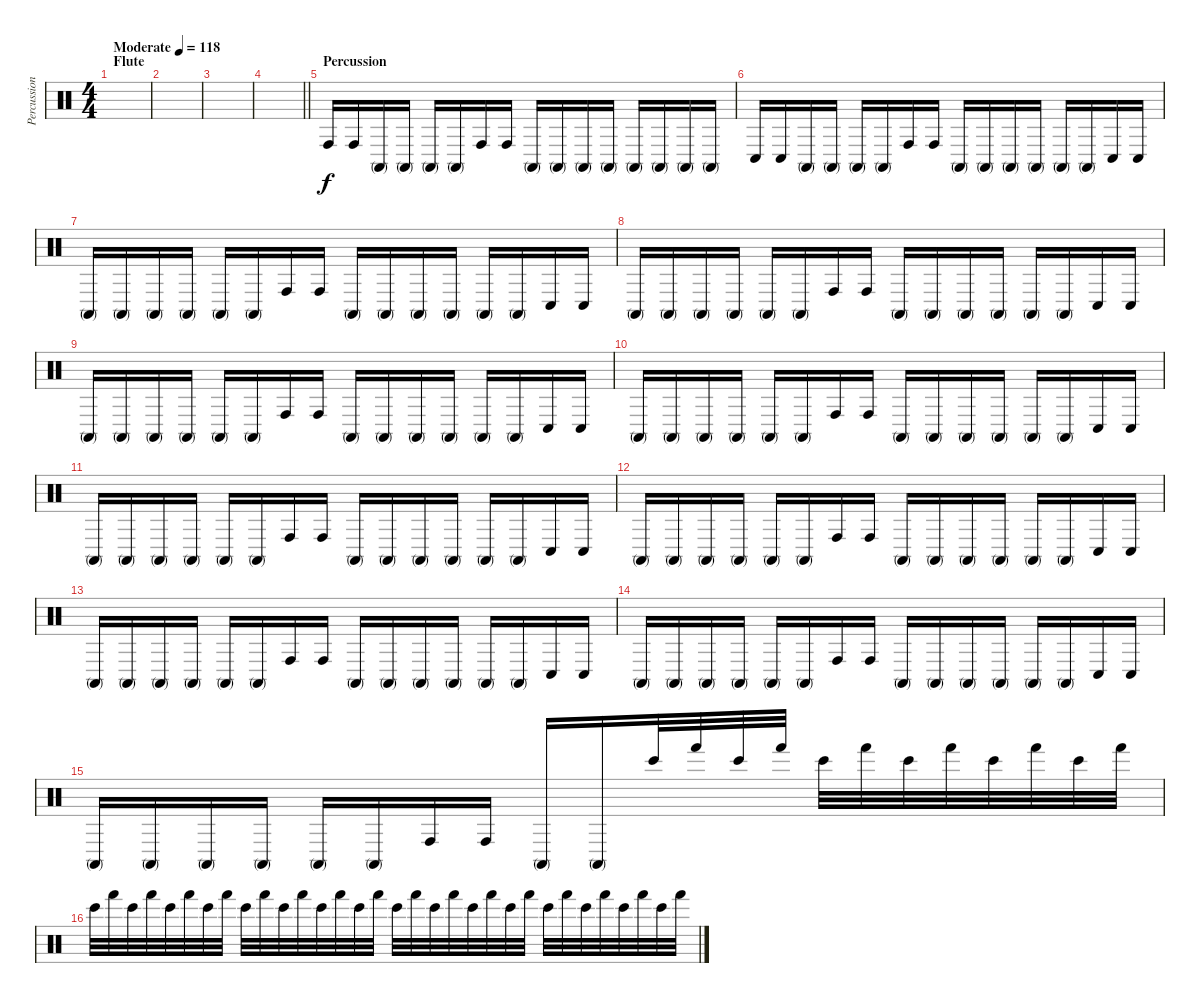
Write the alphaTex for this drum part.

\track ("Percussion (MIDI!!!!!)" "Percussion") {instrument percussion}
\staff {score}
\articulation defaults
\ts (4 4)
\section ("" "Flute")
\tempo (118 "Moderate")
\clef neutral
\ks c
|
|
|
\barLineRight lightlight
|
\section ("" "Percussion")
"Conga high (hit)".16{volume 10} "Conga high (hit)".16 "Conga high (mute)".16 "Conga high (mute)".16 "Conga high (mute)".16 "Conga high (mute)".16 "Conga high (hit)".16 "Conga high (hit)".16 "Conga high (mute)".16 "Conga high (mute)".16 "Conga high (mute)".16 "Conga high (mute)".16 "Conga high (mute)".16 "Conga high (mute)".16 "Conga high (mute)".16 "Conga high (mute)".16 |
"Conga low (hit)".16 "Conga low (hit)".16 "Conga high (mute)".16 "Conga high (mute)".16 "Conga high (mute)".16 "Conga high (mute)".16 "Conga high (hit)".16 "Conga high (hit)".16 "Conga high (mute)".16 "Conga high (mute)".16 "Conga high (mute)".16 "Conga high (mute)".16 "Conga high (mute)".16 "Conga high (mute)".16 "Conga low (hit)".16 "Conga low (hit)".16 |
"Conga high (mute)".16 "Conga high (mute)".16 "Conga high (mute)".16 "Conga high (mute)".16 "Conga high (mute)".16 "Conga high (mute)".16 "Conga high (hit)".16 "Conga high (hit)".16 "Conga high (mute)".16 "Conga high (mute)".16 "Conga high (mute)".16 "Conga high (mute)".16 "Conga high (mute)".16 "Conga high (mute)".16 "Conga low (hit)".16 "Conga low (hit)".16 |
"Conga high (mute)".16 "Conga high (mute)".16 "Conga high (mute)".16 "Conga high (mute)".16 "Conga high (mute)".16 "Conga high (mute)".16 "Conga high (hit)".16 "Conga high (hit)".16 "Conga high (mute)".16 "Conga high (mute)".16 "Conga high (mute)".16 "Conga high (mute)".16 "Conga high (mute)".16 "Conga high (mute)".16 "Conga low (hit)".16 "Conga low (hit)".16 |
"Conga high (mute)".16 "Conga high (mute)".16 "Conga high (mute)".16 "Conga high (mute)".16 "Conga high (mute)".16 "Conga high (mute)".16 "Conga high (hit)".16 "Conga high (hit)".16 "Conga high (mute)".16 "Conga high (mute)".16 "Conga high (mute)".16 "Conga high (mute)".16 "Conga high (mute)".16 "Conga high (mute)".16 "Conga low (hit)".16 "Conga low (hit)".16 |
"Conga high (mute)".16 "Conga high (mute)".16 "Conga high (mute)".16 "Conga high (mute)".16 "Conga high (mute)".16 "Conga high (mute)".16 "Conga high (hit)".16 "Conga high (hit)".16 "Conga high (mute)".16 "Conga high (mute)".16 "Conga high (mute)".16 "Conga high (mute)".16 "Conga high (mute)".16 "Conga high (mute)".16 "Conga low (hit)".16 "Conga low (hit)".16 |
"Conga high (mute)".16 "Conga high (mute)".16 "Conga high (mute)".16 "Conga high (mute)".16 "Conga high (mute)".16 "Conga high (mute)".16 "Conga high (hit)".16 "Conga high (hit)".16 "Conga high (mute)".16 "Conga high (mute)".16 "Conga high (mute)".16 "Conga high (mute)".16 "Conga high (mute)".16 "Conga high (mute)".16 "Conga low (hit)".16 "Conga low (hit)".16 |
"Conga high (mute)".16 "Conga high (mute)".16 "Conga high (mute)".16 "Conga high (mute)".16 "Conga high (mute)".16 "Conga high (mute)".16 "Conga high (hit)".16 "Conga high (hit)".16 "Conga high (mute)".16 "Conga high (mute)".16 "Conga high (mute)".16 "Conga high (mute)".16 "Conga high (mute)".16 "Conga high (mute)".16 "Conga low (hit)".16 "Conga low (hit)".16 |
"Conga high (mute)".16 "Conga high (mute)".16 "Conga high (mute)".16 "Conga high (mute)".16 "Conga high (mute)".16 "Conga high (mute)".16 "Conga high (hit)".16 "Conga high (hit)".16 "Conga high (mute)".16 "Conga high (mute)".16 "Conga high (mute)".16 "Conga high (mute)".16 "Conga high (mute)".16 "Conga high (mute)".16 "Conga low (hit)".16 "Conga low (hit)".16 |
"Conga high (mute)".16 "Conga high (mute)".16 "Conga high (mute)".16 "Conga high (mute)".16 "Conga high (mute)".16 "Conga high (mute)".16 "Conga high (hit)".16 "Conga high (hit)".16 "Conga high (mute)".16 "Conga high (mute)".16 "Conga high (mute)".16 "Conga high (mute)".16 "Conga high (mute)".16 "Conga high (mute)".16 "Conga low (hit)".16 "Conga low (hit)".16 |
"Conga high (mute)".16 "Conga high (mute)".16 "Conga high (mute)".16 "Conga high (mute)".16 "Conga high (mute)".16 "Conga high (mute)".16 "Conga high (hit)".16 "Conga high (hit)".16 "Conga high (mute)".16 "Conga high (mute)".16 "Bongo High (hit)".32 "Hand (hit)".32 "Bongo High (hit)".32 "Hand (hit)".32 "Bongo High (hit)".32 "Hand (hit)".32 "Bongo High (hit)".32 "Hand (hit)".32 "Bongo High (hit)".32 "Hand (hit)".32 "Bongo High (hit)".32 "Hand (hit)".32 |
"Bongo High (hit)".32 "Hand (hit)".32 "Bongo High (hit)".32 "Hand (hit)".32 "Bongo High (hit)".32 "Hand (hit)".32 "Bongo High (hit)".32 "Hand (hit)".32 "Bongo High (hit)".32 "Hand (hit)".32 "Bongo High (hit)".32 "Hand (hit)".32 "Bongo High (hit)".32 "Hand (hit)".32 "Bongo High (hit)".32 "Hand (hit)".32 "Bongo High (hit)".32 "Hand (hit)".32 "Bongo High (hit)".32 "Hand (hit)".32 "Bongo High (hit)".32 "Hand (hit)".32 "Bongo High (hit)".32 "Hand (hit)".32 "Bongo High (hit)".32 "Hand (hit)".32 "Bongo High (hit)".32 "Hand (hit)".32 "Bongo High (hit)".32 "Hand (hit)".32 "Bongo High (hit)".32 "Hand (hit)".32
